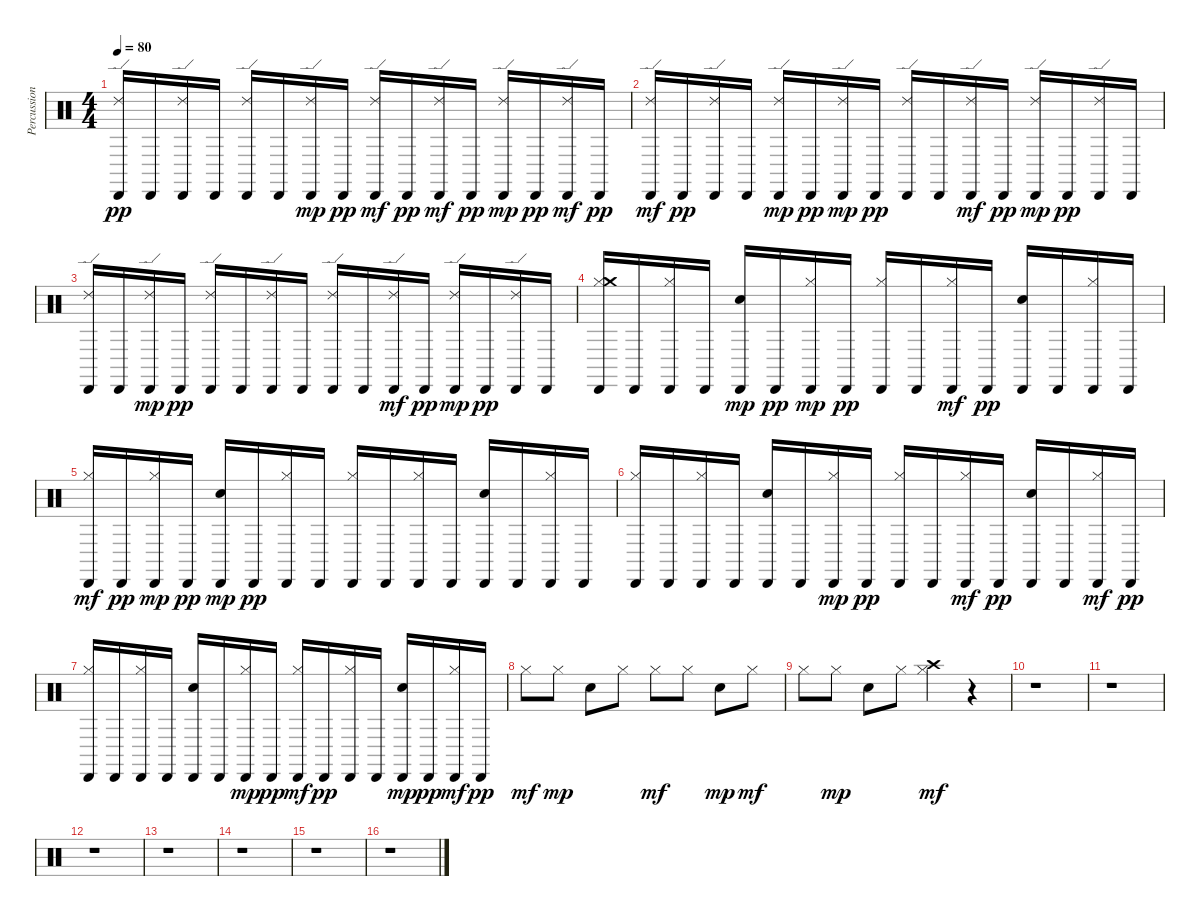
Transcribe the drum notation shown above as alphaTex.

\track ("Percussion" "Percussion") {instrument percussion}
\staff {score}
\articulation defaults
\ts (4 4)
\tempo 80
\clef neutral
\ks c
("Ride (edge) 2" "Cabasa (hit)").16{dy pp} "Cabasa (hit)".16 ("Ride (edge) 2" "Cabasa (hit)").16 "Cabasa (hit)".16 ("Ride (edge) 2" "Cabasa (hit)").16 "Cabasa (hit)".16 ("Cabasa (hit)" "Ride (edge) 2").16{dy mp} "Cabasa (hit)".16{dy pp} ("Cabasa (hit)" "Ride (edge) 2").16{dy mf} "Cabasa (hit)".16{dy pp} ("Cabasa (hit)" "Ride (edge) 2").16{dy mf} "Cabasa (hit)".16{dy pp} ("Cabasa (hit)" "Ride (edge) 2").16{dy mp} "Cabasa (hit)".16{dy pp} ("Cabasa (hit)" "Ride (edge) 2").16{dy mf} "Cabasa (hit)".16{dy pp} |
("Cabasa (hit)" "Ride (edge) 2").16{dy mf} "Cabasa (hit)".16{dy pp} ("Ride (edge) 2" "Cabasa (hit)").16 "Cabasa (hit)".16 ("Cabasa (hit)" "Ride (edge) 2").16{dy mp} "Cabasa (hit)".16{dy pp} ("Cabasa (hit)" "Ride (edge) 2").16{dy mp} "Cabasa (hit)".16{dy pp} ("Ride (edge) 2" "Cabasa (hit)").16 "Cabasa (hit)".16 ("Cabasa (hit)" "Ride (edge) 2").16{dy mf} "Cabasa (hit)".16{dy pp} ("Cabasa (hit)" "Ride (edge) 2").16{dy mp} "Cabasa (hit)".16{dy pp} ("Ride (edge) 2" "Cabasa (hit)").16 "Cabasa (hit)".16 |
("Ride (edge) 2" "Cabasa (hit)").16 "Cabasa (hit)".16 ("Cabasa (hit)" "Ride (edge) 2").16{dy mp} "Cabasa (hit)".16{dy pp} ("Ride (edge) 2" "Cabasa (hit)").16 "Cabasa (hit)".16 ("Ride (edge) 2" "Cabasa (hit)").16 "Cabasa (hit)".16 ("Ride (edge) 2" "Cabasa (hit)").16 "Cabasa (hit)".16 ("Cabasa (hit)" "Ride (edge) 2").16{dy mf} "Cabasa (hit)".16{dy pp} ("Cabasa (hit)" "Ride (edge) 2").16{dy mp} "Cabasa (hit)".16{dy pp} ("Ride (edge) 2" "Cabasa (hit)").16 "Cabasa (hit)".16 |
("Hi-Hat (closed)" "Crash medium (hit)" "Cabasa (hit)").16 "Cabasa (hit)".16 ("Hi-Hat (closed)" "Cabasa (hit)").16 "Cabasa (hit)".16 ("Cabasa (hit)" "Hand Clap (hit)").16{dy mp} "Cabasa (hit)".16{dy pp} ("Cabasa (hit)" "Hi-Hat (closed)").16{dy mp} "Cabasa (hit)".16{dy pp} ("Hi-Hat (closed)" "Cabasa (hit)").16 "Cabasa (hit)".16 ("Cabasa (hit)" "Hi-Hat (closed)").16{dy mf} "Cabasa (hit)".16{dy pp} ("Hand Clap (hit)" "Cabasa (hit)").16 "Cabasa (hit)".16 ("Hi-Hat (closed)" "Cabasa (hit)").16 "Cabasa (hit)".16 |
("Cabasa (hit)" "Hi-Hat (closed)").16{dy mf} "Cabasa (hit)".16{dy pp} ("Cabasa (hit)" "Hi-Hat (closed)").16{dy mp} "Cabasa (hit)".16{dy pp} ("Cabasa (hit)" "Hand Clap (hit)").16{dy mp} "Cabasa (hit)".16{dy pp} ("Hi-Hat (closed)" "Cabasa (hit)").16 "Cabasa (hit)".16 ("Hi-Hat (closed)" "Cabasa (hit)").16 "Cabasa (hit)".16 ("Hi-Hat (closed)" "Cabasa (hit)").16 "Cabasa (hit)".16 ("Hand Clap (hit)" "Cabasa (hit)").16 "Cabasa (hit)".16 ("Hi-Hat (closed)" "Cabasa (hit)").16 "Cabasa (hit)".16 |
("Hi-Hat (closed)" "Cabasa (hit)").16 "Cabasa (hit)".16 ("Hi-Hat (closed)" "Cabasa (hit)").16 "Cabasa (hit)".16 ("Hand Clap (hit)" "Cabasa (hit)").16 "Cabasa (hit)".16 ("Cabasa (hit)" "Hi-Hat (closed)").16{dy mp} "Cabasa (hit)".16{dy pp} ("Hi-Hat (closed)" "Cabasa (hit)").16 "Cabasa (hit)".16 ("Cabasa (hit)" "Hi-Hat (closed)").16{dy mf} "Cabasa (hit)".16{dy pp} ("Hand Clap (hit)" "Cabasa (hit)").16 "Cabasa (hit)".16 ("Cabasa (hit)" "Hi-Hat (closed)").16{dy mf} "Cabasa (hit)".16{dy pp} |
("Hi-Hat (closed)" "Cabasa (hit)").16 "Cabasa (hit)".16 ("Hi-Hat (closed)" "Cabasa (hit)").16 "Cabasa (hit)".16 ("Hand Clap (hit)" "Cabasa (hit)").16 "Cabasa (hit)".16 ("Cabasa (hit)" "Hi-Hat (closed)").16{dy mp} "Cabasa (hit)".16{dy pp} ("Cabasa (hit)" "Hi-Hat (closed)").16{dy mf} "Cabasa (hit)".16{dy pp} ("Hi-Hat (closed)" "Cabasa (hit)").16 "Cabasa (hit)".16 ("Cabasa (hit)" "Hand Clap (hit)").16{dy mp} "Cabasa (hit)".16{dy pp} ("Cabasa (hit)" "Hi-Hat (closed)").16{dy mf} "Cabasa (hit)".16{dy pp} |
"Hi-Hat (closed)".8{dy mf} "Hi-Hat (closed)".8{dy mp} "Hand Clap (hit)".8 "Hi-Hat (closed)".8 "Hi-Hat (closed)".8{dy mf} "Hi-Hat (closed)".8 "Hand Clap (hit)".8{dy mp} "Hi-Hat (closed)".8{dy mf} |
"Hi-Hat (closed)".8 "Hi-Hat (closed)".8{dy mp} "Hand Clap (hit)".8 "Hi-Hat (closed)".8 ("Crash high (hit)" "Hi-Hat (closed)").4{dy mf} r.4 |
r.1 |
r.1 |
r.1 |
r.1 |
r.1 |
r.1 |
r.1
